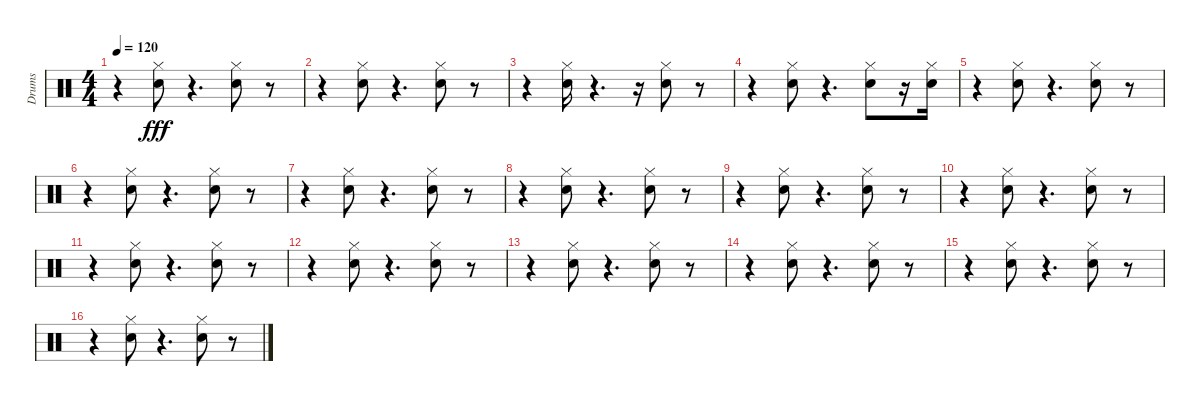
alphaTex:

\track ("Drums" "Drums") {instrument percussion}
\staff {score}
\articulation defaults
\ts (4 4)
\tempo 120
\clef neutral
\ks c
r.4{dy fff} ("Hi-Hat (closed)" "Electric Snare (hit)").8 r.4{d} ("Hi-Hat (closed)" "Electric Snare (hit)").8 r.8 |
r.4 ("Hi-Hat (closed)" "Electric Snare (hit)").8 r.4{d} ("Hi-Hat (closed)" "Electric Snare (hit)").8 r.8 |
r.4 ("Hi-Hat (closed)" "Electric Snare (hit)").16 r.4{d} r.16 ("Hi-Hat (closed)" "Electric Snare (hit)").8 r.8 |
r.4 ("Hi-Hat (closed)" "Electric Snare (hit)").8 r.4{d} ("Hi-Hat (closed)" "Electric Snare (hit)").8 r.16 ("Hi-Hat (closed)" "Electric Snare (hit)").16 |
r.4 ("Hi-Hat (closed)" "Electric Snare (hit)").8 r.4{d} ("Hi-Hat (closed)" "Electric Snare (hit)").8 r.8 |
r.4 ("Hi-Hat (closed)" "Electric Snare (hit)").8 r.4{d} ("Hi-Hat (closed)" "Electric Snare (hit)").8 r.8 |
r.4 ("Hi-Hat (closed)" "Electric Snare (hit)").8 r.4{d} ("Hi-Hat (closed)" "Electric Snare (hit)").8 r.8 |
r.4 ("Hi-Hat (closed)" "Electric Snare (hit)").8 r.4{d} ("Hi-Hat (closed)" "Electric Snare (hit)").8 r.8 |
r.4 ("Hi-Hat (closed)" "Electric Snare (hit)").8 r.4{d} ("Hi-Hat (closed)" "Electric Snare (hit)").8 r.8 |
r.4 ("Hi-Hat (closed)" "Electric Snare (hit)").8 r.4{d} ("Hi-Hat (closed)" "Electric Snare (hit)").8 r.8 |
r.4 ("Hi-Hat (closed)" "Electric Snare (hit)").8 r.4{d} ("Hi-Hat (closed)" "Electric Snare (hit)").8 r.8 |
r.4 ("Hi-Hat (closed)" "Electric Snare (hit)").8 r.4{d} ("Hi-Hat (closed)" "Electric Snare (hit)").8 r.8 |
r.4 ("Hi-Hat (closed)" "Electric Snare (hit)").8 r.4{d} ("Hi-Hat (closed)" "Electric Snare (hit)").8 r.8 |
r.4 ("Hi-Hat (closed)" "Electric Snare (hit)").8 r.4{d} ("Hi-Hat (closed)" "Electric Snare (hit)").8 r.8 |
r.4 ("Hi-Hat (closed)" "Electric Snare (hit)").8 r.4{d} ("Hi-Hat (closed)" "Electric Snare (hit)").8 r.8 |
r.4 ("Hi-Hat (closed)" "Electric Snare (hit)").8 r.4{d} ("Hi-Hat (closed)" "Electric Snare (hit)").8 r.8
